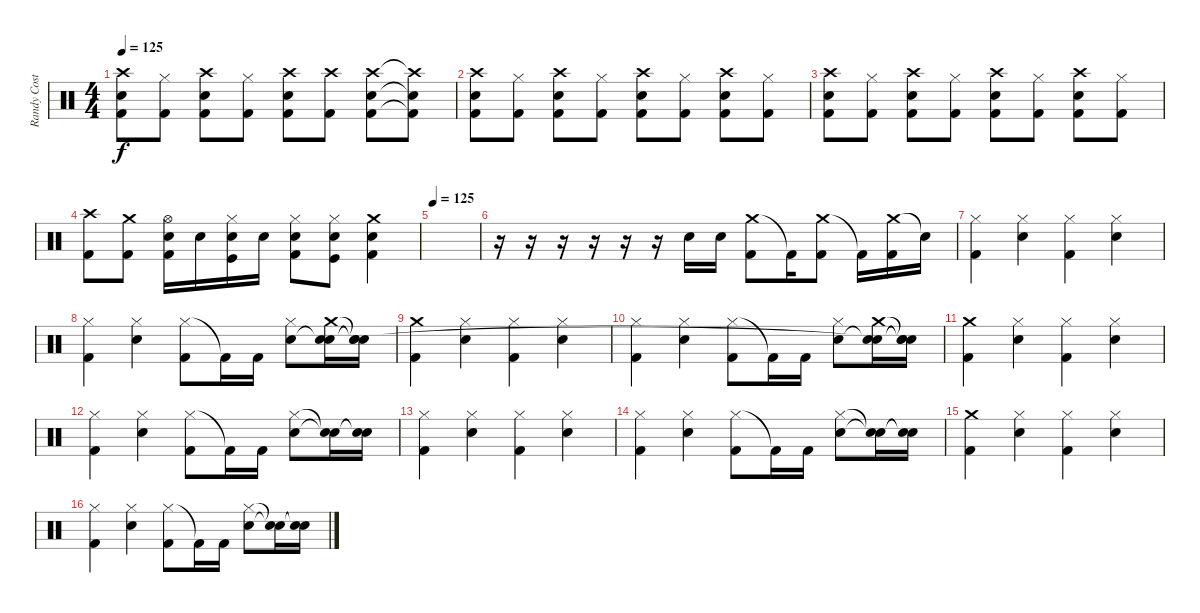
\track ("Randy Costillo" "Randy Cost") {instrument percussion}
\staff {score}
\articulation defaults
\ts (4 4)
\tempo 125
\clef neutral
\ks c
("Crash high (hit)" "Snare (hit) 2" "Kick (hit) 2").8{dy f} ("Hi-Hat (closed)" "Kick (hit) 2").8 ("Crash high (hit)" "Snare (hit) 2" "Kick (hit) 2").8 ("Hi-Hat (closed)" "Kick (hit) 2").8 ("Crash high (hit)" "Snare (hit) 2" "Kick (hit) 2").8 ("Crash high (hit)" "Kick (hit) 2").8 ("Crash high (hit)" "Snare (hit) 2" "Kick (hit) 2").8 ("Crash high (hit)"{t} "Snare (hit)"{t} "Kick (hit) 2"{t}).8 |
("Crash high (hit)" "Snare (hit) 2" "Kick (hit) 2").8 ("Hi-Hat (closed)" "Kick (hit) 2").8 ("Crash high (hit)" "Snare (hit) 2" "Kick (hit) 2").8 ("Hi-Hat (closed)" "Kick (hit) 2").8 ("Crash high (hit)" "Snare (hit) 2" "Kick (hit) 2").8 ("Hi-Hat (closed)" "Kick (hit) 2").8 ("Crash high (hit)" "Snare (hit) 2" "Kick (hit) 2").8 ("Hi-Hat (closed)" "Kick (hit) 2").8 |
("Crash high (hit)" "Snare (hit) 2" "Kick (hit) 2").8 ("Hi-Hat (closed)" "Kick (hit) 2").8 ("Crash high (hit)" "Snare (hit) 2" "Kick (hit) 2").8 ("Hi-Hat (closed)" "Kick (hit) 2").8 ("Crash high (hit)" "Snare (hit) 2" "Kick (hit) 2").8 ("Hi-Hat (closed)" "Kick (hit) 2").8 ("Crash high (hit)" "Snare (hit) 2" "Kick (hit) 2").8 ("Hi-Hat (closed)" "Kick (hit) 2").8 |
("Crash high (hit)" "Kick (hit) 2").8 ("Crash medium (hit)" "Kick (hit) 2").8 ("Hi-Hat (open)" "Snare (hit) 2" "Kick (hit) 2").16 "Snare (hit) 2".16 ("Hi-Hat (closed)" "Snare (hit) 2" "Kick (hit)").16 "Snare (hit) 2".16 ("Hi-Hat (closed)" "Snare (hit) 2" "Kick (hit) 2").8 ("Hi-Hat (closed)" "Snare (hit) 2" "Kick (hit)").8 ("Crash medium (hit)" "Snare (hit) 2" "Kick (hit) 2").4 |
\tempo 125
|
r.16 r.16 r.16 r.16 r.16 r.16 "Snare (hit) 2".16 "Snare (hit) 2".16 ("Crash medium (hit)" "Kick (hit) 2").8 "Kick (hit) 2"{t}.16 ("Crash medium (hit)" "Kick (hit) 2").8 "Kick (hit) 2"{t}.16 ("Crash medium (hit)" "Kick (hit) 2").16 "Snare (hit)"{t}.16 |
("Hi-Hat (closed)" "Kick (hit) 2").4 ("Hi-Hat (closed)" "Snare (hit) 2").4 ("Hi-Hat (closed)" "Kick (hit) 2").4 ("Hi-Hat (closed)" "Snare (hit) 2").4 |
("Hi-Hat (closed)" "Kick (hit) 2").4 ("Hi-Hat (closed)" "Snare (hit) 2").4 ("Hi-Hat (closed)" "Kick (hit) 2").8 "Kick (hit) 2"{t}.16 "Kick (hit) 2".16 ("Hi-Hat (closed)" "Snare (hit) 2").8 ("Crash medium (hit)" "Snare (hit)"{t} "Snare (hit)").16 ("Snare (hit)"{t} "Snare (hit)"{t} "Snare (hit)"{t}).16 |
("Crash medium (hit)" "Kick (hit) 2").4 ("Hi-Hat (closed)" "Snare (hit) 2").4 ("Hi-Hat (closed)" "Kick (hit) 2").4 ("Hi-Hat (closed)" "Snare (hit) 2").4 |
("Hi-Hat (closed)" "Kick (hit) 2").4 ("Hi-Hat (closed)" "Snare (hit) 2").4 ("Hi-Hat (closed)" "Kick (hit) 2").8 "Kick (hit) 2"{t}.16 "Kick (hit) 2".16 ("Hi-Hat (closed)" "Snare (hit) 2").8 ("Crash medium (hit)" "Snare (hit)"{t} "Snare (hit)"{t}).16 ("Snare (hit)"{t} "Snare (hit)"{t} "Snare (hit)"{t}).16 |
("Crash medium (hit)" "Kick (hit) 2").4 ("Hi-Hat (closed)" "Snare (hit) 2").4 ("Hi-Hat (closed)" "Kick (hit) 2").4 ("Hi-Hat (closed)" "Snare (hit) 2").4 |
("Hi-Hat (closed)" "Kick (hit) 2").4 ("Hi-Hat (closed)" "Snare (hit) 2").4 ("Hi-Hat (closed)" "Kick (hit) 2").8 "Kick (hit) 2"{t}.16 "Kick (hit) 2".16 ("Hi-Hat (closed)" "Snare (hit) 2").8 ("Snare (hit)"{t} "Snare (hit)"{t}).16 ("Snare (hit)"{t} "Snare (hit)"{t}).16 |
("Hi-Hat (closed)" "Kick (hit) 2").4 ("Hi-Hat (closed)" "Snare (hit) 2").4 ("Hi-Hat (closed)" "Kick (hit) 2").4 ("Hi-Hat (closed)" "Snare (hit) 2").4 |
("Hi-Hat (closed)" "Kick (hit) 2").4 ("Hi-Hat (closed)" "Snare (hit) 2").4 ("Hi-Hat (closed)" "Kick (hit) 2").8 "Kick (hit) 2"{t}.16 "Kick (hit) 2".16 ("Hi-Hat (closed)" "Snare (hit) 2").8 ("Snare (hit)"{t} "Snare (hit)"{t}).16 ("Snare (hit)"{t} "Snare (hit)"{t}).16 |
("Crash medium (hit)" "Kick (hit) 2").4 ("Hi-Hat (closed)" "Snare (hit) 2").4 ("Hi-Hat (closed)" "Kick (hit) 2").4 ("Hi-Hat (closed)" "Snare (hit) 2").4 |
("Hi-Hat (closed)" "Kick (hit) 2").4 ("Hi-Hat (closed)" "Snare (hit) 2").4 ("Hi-Hat (closed)" "Kick (hit) 2").8 "Kick (hit) 2"{t}.16 "Kick (hit) 2".16 ("Hi-Hat (closed)" "Snare (hit) 2").8 ("Snare (hit)"{t} "Snare (hit)"{t}).16 ("Snare (hit)"{t} "Snare (hit)"{t}).16
